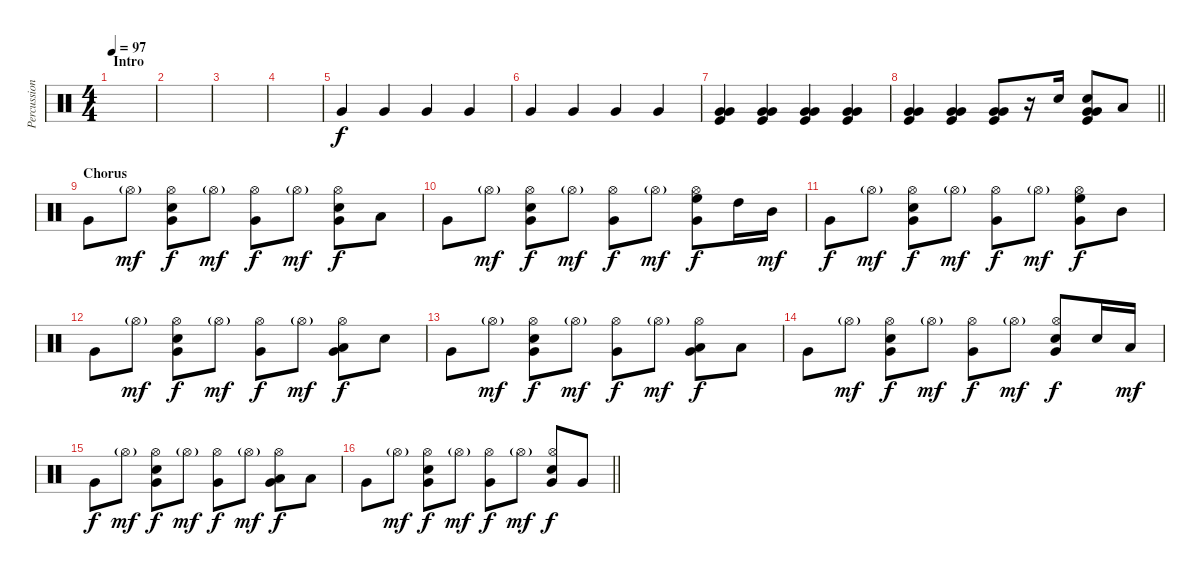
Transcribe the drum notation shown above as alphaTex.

\track ("Percussion" "Percussion") {instrument percussion}
\staff {score}
\articulation defaults
\ts (4 4)
\section ("" "Intro")
\tempo 97
\clef neutral
\ks c
|
|
|
|
"Very Low Tom (hit)".4 "Very Low Tom (hit)".4 "Very Low Tom (hit)".4 "Very Low Tom (hit)".4 |
"Very Low Tom (hit)".4 "Very Low Tom (hit)".4 "Very Low Tom (hit)".4 "Very Low Tom (hit)".4 |
("Very Low Tom (hit)" "Very Low Tom (hit)" "Kick (hit)").4 ("Very Low Tom (hit)" "Very Low Tom (hit)" "Kick (hit)").4 ("Very Low Tom (hit)" "Very Low Tom (hit)" "Kick (hit)").4 ("Very Low Tom (hit)" "Very Low Tom (hit)" "Kick (hit)").4 |
\barLineRight lightlight
("Very Low Tom (hit)" "Very Low Tom (hit)" "Kick (hit)").4 ("Very Low Tom (hit)" "Very Low Tom (hit)" "Kick (hit)").4 ("Very Low Tom (hit)" "Very Low Tom (hit)" "Kick (hit)").8 r.16 "Snare (hit) 2".16 ("Very Low Tom (hit)" "Very Low Tom (hit)" "Snare (hit) 2" "Kick (hit)").8 "Low Tom (hit)".8 |
\section ("" "Chorus")
"Very Low Tom (hit)".8 "Hi-Hat (open)"{g}.8{dy mf} ("Hi-Hat (open)" "Very Low Tom (hit)" "Snare (hit) 2").8{dy f} "Hi-Hat (open)"{g}.8{dy mf} ("Hi-Hat (open)" "Very Low Tom (hit)").8{dy f} "Hi-Hat (open)"{g}.8{dy mf} ("Hi-Hat (open)" "Very Low Tom (hit)" "Snare (hit) 2").8{dy f} "Low Tom (hit)".8 |
"Very Low Tom (hit)".8 "Hi-Hat (open)"{g}.8{dy mf} ("Hi-Hat (open)" "Very Low Tom (hit)" "Snare (hit) 2").8{dy f} "Hi-Hat (open)"{g}.8{dy mf} ("Hi-Hat (open)" "Very Low Tom (hit)").8{dy f} "Hi-Hat (open)"{g}.8{dy mf} ("Hi-Hat (open)" "Very Low Tom (hit)" "High Floor Tom (hit)").8{dy f} "High Tom (hit)".16 "Mid Tom (hit)".16{dy mf} |
"Very Low Tom (hit)".8{dy f} "Hi-Hat (open)"{g}.8{dy mf} ("Hi-Hat (open)" "Very Low Tom (hit)" "Snare (hit) 2").8{dy f} "Hi-Hat (open)"{g}.8{dy mf} ("Hi-Hat (open)" "Very Low Tom (hit)").8{dy f} "Hi-Hat (open)"{g}.8{dy mf} ("Hi-Hat (open)" "Very Low Tom (hit)" "High Floor Tom (hit)").8{dy f} "Mid Tom (hit)".8 |
"Very Low Tom (hit)".8 "Hi-Hat (open)"{g}.8{dy mf} ("Hi-Hat (open)" "Very Low Tom (hit)" "Snare (hit) 2").8{dy f} "Hi-Hat (open)"{g}.8{dy mf} ("Hi-Hat (open)" "Very Low Tom (hit)").8{dy f} "Hi-Hat (open)"{g}.8{dy mf} ("Hi-Hat (open)" "Very Low Tom (hit)" "Low Tom (hit)").8{dy f} "Snare (hit) 2".8 |
"Very Low Tom (hit)".8 "Hi-Hat (open)"{g}.8{dy mf} ("Hi-Hat (open)" "Very Low Tom (hit)" "Snare (hit) 2").8{dy f} "Hi-Hat (open)"{g}.8{dy mf} ("Hi-Hat (open)" "Very Low Tom (hit)").8{dy f} "Hi-Hat (open)"{g}.8{dy mf} ("Hi-Hat (open)" "Very Low Tom (hit)" "Low Tom (hit)").8{dy f} "Low Floor Tom (hit)".8 |
"Very Low Tom (hit)".8 "Hi-Hat (open)"{g}.8{dy mf} ("Hi-Hat (open)" "Very Low Tom (hit)" "Snare (hit) 2").8{dy f} "Hi-Hat (open)"{g}.8{dy mf} ("Hi-Hat (open)" "Very Low Tom (hit)").8{dy f} "Hi-Hat (open)"{g}.8{dy mf} ("Hi-Hat (open)" "Very Low Tom (hit)" "Electric Snare (hit)").8{dy f} "Snare (hit) 2".16 "Low Floor Tom (hit)".16{dy mf} |
"Very Low Tom (hit)".8{dy f} "Hi-Hat (open)"{g}.8{dy mf} ("Hi-Hat (open)" "Very Low Tom (hit)" "Snare (hit) 2").8{dy f} "Hi-Hat (open)"{g}.8{dy mf} ("Hi-Hat (open)" "Very Low Tom (hit)").8{dy f} "Hi-Hat (open)"{g}.8{dy mf} ("Hi-Hat (open)" "Very Low Tom (hit)" "Low Tom (hit)").8{dy f} "Low Floor Tom (hit)".8 |
\barLineRight lightlight "Very Low Tom (hit)".8 "Hi-Hat (open)"{g}.8{dy mf}
("Hi-Hat (open)" "Very Low Tom (hit)" "Snare (hit) 2").8{dy f} "Hi-Hat (open)"{g}.8{dy mf} ("Hi-Hat (open)" "Very Low Tom (hit)").8{dy f} "Hi-Hat (open)"{g}.8{dy mf} ("Hi-Hat (open)" "Very Low Tom (hit)" "Electric Snare (hit)").8{dy f} "Very Low Tom (hit)".8
